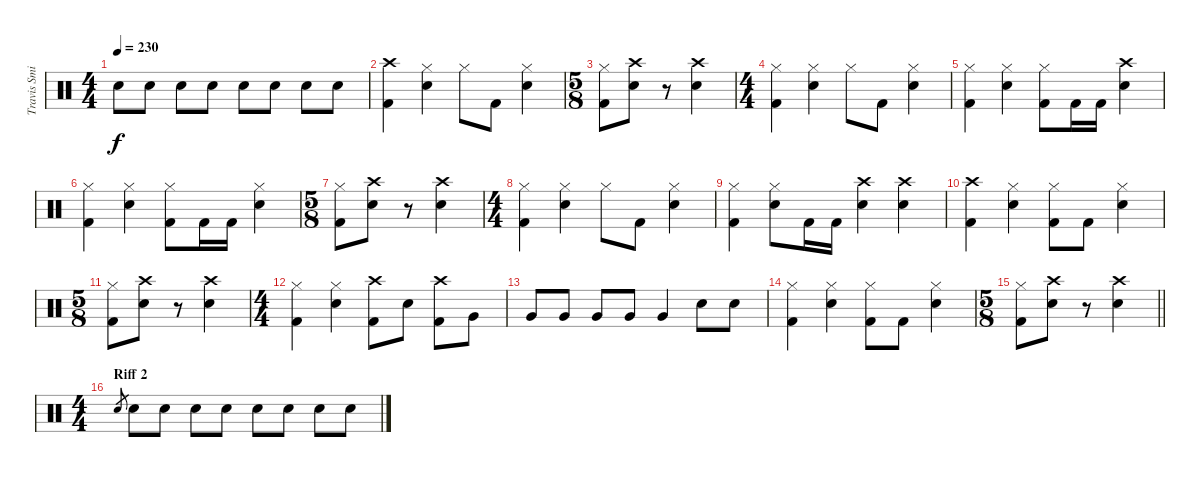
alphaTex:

\track ("Travis Smith (Drums)" "Travis Smi") {instrument percussion}
\staff {score}
\articulation defaults
\ts (4 4)
\tempo 230
\clef neutral
\ks c "Electric Snare (hit)".8{dy f} "Electric Snare (hit)".8 "Electric Snare (hit)".8 "Electric Snare (hit)".8 "Electric Snare (hit)".8 "Electric Snare (hit)".8 "Electric Snare (hit)".8 "Electric Snare (hit)".8
|
("Crash high (hit)" "Kick (hit) 2").4 ("Hi-Hat (closed)" "Electric Snare (hit)").4 "Hi-Hat (closed)".8 "Kick (hit) 2".8 ("Hi-Hat (closed)" "Electric Snare (hit)").4 |
\ts (5 8)
("Hi-Hat (closed)" "Kick (hit) 2").8 ("Crash high (hit)" "Electric Snare (hit)").8 r.8 ("Crash high (hit)" "Electric Snare (hit)").4 |
\ts (4 4)
("Hi-Hat (closed)" "Kick (hit) 2").4 ("Hi-Hat (closed)" "Electric Snare (hit)").4 "Hi-Hat (closed)".8 "Kick (hit) 2".8 ("Hi-Hat (closed)" "Electric Snare (hit)").4 |
("Hi-Hat (closed)" "Kick (hit) 2").4 ("Hi-Hat (closed)" "Electric Snare (hit)").4 ("Hi-Hat (closed)" "Kick (hit) 2").8 "Kick (hit) 2".16 "Kick (hit) 2".16 ("Crash high (hit)" "Electric Snare (hit)").4 |
("Hi-Hat (closed)" "Kick (hit) 2").4 ("Hi-Hat (closed)" "Electric Snare (hit)").4 ("Hi-Hat (closed)" "Kick (hit) 2").8 "Kick (hit) 2".16 "Kick (hit) 2".16 ("Hi-Hat (closed)" "Electric Snare (hit)").4 |
\ts (5 8)
("Hi-Hat (closed)" "Kick (hit) 2").8 ("Crash high (hit)" "Electric Snare (hit)").8 r.8 ("Crash high (hit)" "Electric Snare (hit)").4 |
\ts (4 4)
("Hi-Hat (closed)" "Kick (hit) 2").4 ("Hi-Hat (closed)" "Electric Snare (hit)").4 "Hi-Hat (closed)".8 "Kick (hit) 2".8 ("Hi-Hat (closed)" "Electric Snare (hit)").4 |
("Hi-Hat (closed)" "Kick (hit) 2").4 ("Hi-Hat (closed)" "Electric Snare (hit)").8 "Kick (hit) 2".16 "Kick (hit) 2".16 ("Crash high (hit)" "Electric Snare (hit)").4 ("Crash high (hit)" "Electric Snare (hit)").4 |
("Crash high (hit)" "Kick (hit) 2").4 ("Hi-Hat (closed)" "Electric Snare (hit)").4 ("Hi-Hat (closed)" "Kick (hit) 2").8 "Kick (hit) 2".8 ("Hi-Hat (closed)" "Electric Snare (hit)").4 |
\ts (5 8)
("Hi-Hat (closed)" "Kick (hit) 2").8 ("Crash high (hit)" "Electric Snare (hit)").8 r.8 ("Crash high (hit)" "Electric Snare (hit)").4 |
\ts (4 4)
("Hi-Hat (closed)" "Kick (hit) 2").4 ("Hi-Hat (closed)" "Electric Snare (hit)").4 ("Crash high (hit)" "Kick (hit) 2").8 "Electric Snare (hit)".8 ("Crash high (hit)" "Kick (hit) 2").8 "Very Low Tom (hit)".8 |
"Very Low Tom (hit)".8 "Very Low Tom (hit)".8 "Very Low Tom (hit)".8 "Very Low Tom (hit)".8 "Very Low Tom (hit)".4 "Electric Snare (hit)".8 "Electric Snare (hit)".8 |
("Hi-Hat (closed)" "Kick (hit) 2").4 ("Hi-Hat (closed)" "Electric Snare (hit)").4 ("Hi-Hat (closed)" "Kick (hit) 2").8 "Kick (hit) 2".8 ("Hi-Hat (closed)" "Electric Snare (hit)").4 |
\ts (5 8)
\barLineRight lightlight
("Hi-Hat (closed)" "Kick (hit) 2").8 ("Crash high (hit)" "Electric Snare (hit)").8 r.8 ("Crash high (hit)" "Electric Snare (hit)").4 |
\ts (4 4)
\section ("" "Riff 2")
"Electric Snare (hit)".8{gr} "Electric Snare (hit)".8 "Electric Snare (hit)".8 "Electric Snare (hit)".8 "Electric Snare (hit)".8 "Electric Snare (hit)".8 "Electric Snare (hit)".8 "Electric Snare (hit)".8 "Electric Snare (hit)".8
